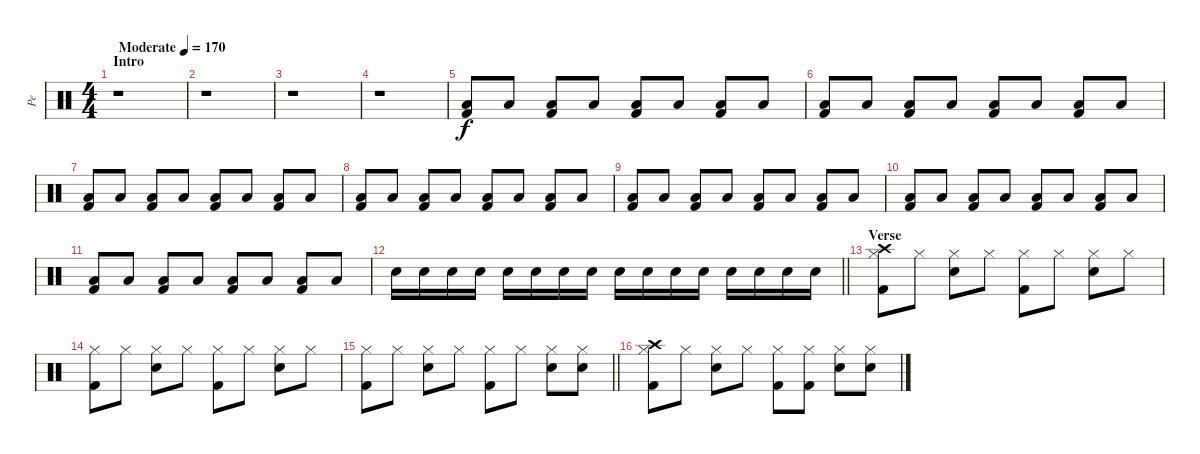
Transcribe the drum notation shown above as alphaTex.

\track ("Pe" "Pe") {instrument percussion}
\staff {score}
\articulation defaults
\ts (4 4)
\section ("" "Intro")
\tempo (170 "Moderate")
\clef neutral
\ks c
r.1{dy f} |
r.1 |
r.1 |
r.1 |
("Low Floor Tom (hit)" "Kick (hit) 2").8 "Low Floor Tom (hit)".8 ("Low Floor Tom (hit)" "Kick (hit) 2").8 "Low Floor Tom (hit)".8 ("Low Floor Tom (hit)" "Kick (hit) 2").8 "Low Floor Tom (hit)".8 ("Low Floor Tom (hit)" "Kick (hit) 2").8 "Low Floor Tom (hit)".8 |
("Low Floor Tom (hit)" "Kick (hit) 2").8 "Low Floor Tom (hit)".8 ("Low Floor Tom (hit)" "Kick (hit) 2").8 "Low Floor Tom (hit)".8 ("Low Floor Tom (hit)" "Kick (hit) 2").8 "Low Floor Tom (hit)".8 ("Low Floor Tom (hit)" "Kick (hit) 2").8 "Low Floor Tom (hit)".8 |
("Low Floor Tom (hit)" "Kick (hit) 2").8 "Low Floor Tom (hit)".8 ("Low Floor Tom (hit)" "Kick (hit) 2").8 "Low Floor Tom (hit)".8 ("Low Floor Tom (hit)" "Kick (hit) 2").8 "Low Floor Tom (hit)".8 ("Low Floor Tom (hit)" "Kick (hit) 2").8 "Low Floor Tom (hit)".8 |
("Low Floor Tom (hit)" "Kick (hit) 2").8 "Low Floor Tom (hit)".8 ("Low Floor Tom (hit)" "Kick (hit) 2").8 "Low Floor Tom (hit)".8 ("Low Floor Tom (hit)" "Kick (hit) 2").8 "Low Floor Tom (hit)".8 ("Low Floor Tom (hit)" "Kick (hit) 2").8 "Low Floor Tom (hit)".8 |
("Low Floor Tom (hit)" "Kick (hit) 2").8 "Low Floor Tom (hit)".8 ("Low Floor Tom (hit)" "Kick (hit) 2").8 "Low Floor Tom (hit)".8 ("Low Floor Tom (hit)" "Kick (hit) 2").8 "Low Floor Tom (hit)".8 ("Low Floor Tom (hit)" "Kick (hit) 2").8 "Low Floor Tom (hit)".8 |
("Low Floor Tom (hit)" "Kick (hit) 2").8 "Low Floor Tom (hit)".8 ("Low Floor Tom (hit)" "Kick (hit) 2").8 "Low Floor Tom (hit)".8 ("Low Floor Tom (hit)" "Kick (hit) 2").8 "Low Floor Tom (hit)".8 ("Low Floor Tom (hit)" "Kick (hit) 2").8 "Low Floor Tom (hit)".8 |
("Low Floor Tom (hit)" "Kick (hit) 2").8 "Low Floor Tom (hit)".8 ("Low Floor Tom (hit)" "Kick (hit) 2").8 "Low Floor Tom (hit)".8 ("Low Floor Tom (hit)" "Kick (hit) 2").8 "Low Floor Tom (hit)".8 ("Low Floor Tom (hit)" "Kick (hit) 2").8 "Low Floor Tom (hit)".8 |
\barLineRight lightlight "Snare (hit) 2".16 "Snare (hit) 2".16 "Snare (hit) 2".16 "Snare (hit) 2".16 "Snare (hit) 2".16 "Snare (hit) 2".16 "Snare (hit) 2".16 "Snare (hit) 2".16 "Snare (hit) 2".16 "Snare (hit) 2".16 "Snare (hit) 2".16 "Snare (hit) 2".16 "Snare (hit) 2".16 "Snare (hit) 2".16 "Snare (hit) 2".16 "Snare (hit) 2".16
|
\section ("" "Verse")
("Crash high (hit)" "Hi-Hat (closed)" "Kick (hit) 2").8 "Hi-Hat (closed)".8 ("Hi-Hat (closed)" "Snare (hit) 2").8 "Hi-Hat (closed)".8 ("Hi-Hat (closed)" "Kick (hit) 2").8 "Hi-Hat (closed)".8 ("Hi-Hat (closed)" "Snare (hit) 2").8 "Hi-Hat (closed)".8 |
("Hi-Hat (closed)" "Kick (hit) 2").8 "Hi-Hat (closed)".8 ("Hi-Hat (closed)" "Snare (hit) 2").8 "Hi-Hat (closed)".8 ("Hi-Hat (closed)" "Kick (hit) 2").8 "Hi-Hat (closed)".8 ("Hi-Hat (closed)" "Snare (hit) 2").8 "Hi-Hat (closed)".8 |
\barLineRight lightlight
("Hi-Hat (closed)" "Kick (hit) 2").8 "Hi-Hat (closed)".8 ("Hi-Hat (closed)" "Snare (hit) 2").8 "Hi-Hat (closed)".8 ("Hi-Hat (closed)" "Kick (hit) 2").8 "Hi-Hat (closed)".8 ("Hi-Hat (closed)" "Snare (hit) 2").8 ("Hi-Hat (closed)" "Snare (hit) 2").8 |
\section ("" "")
("Crash high (hit)" "Hi-Hat (closed)" "Kick (hit) 2").8 "Hi-Hat (closed)".8 ("Hi-Hat (closed)" "Snare (hit) 2").8 "Hi-Hat (closed)".8 ("Hi-Hat (closed)" "Kick (hit) 2").8 ("Hi-Hat (closed)" "Kick (hit) 2").8 ("Hi-Hat (closed)" "Snare (hit) 2").8 ("Hi-Hat (closed)" "Snare (hit) 2").8
